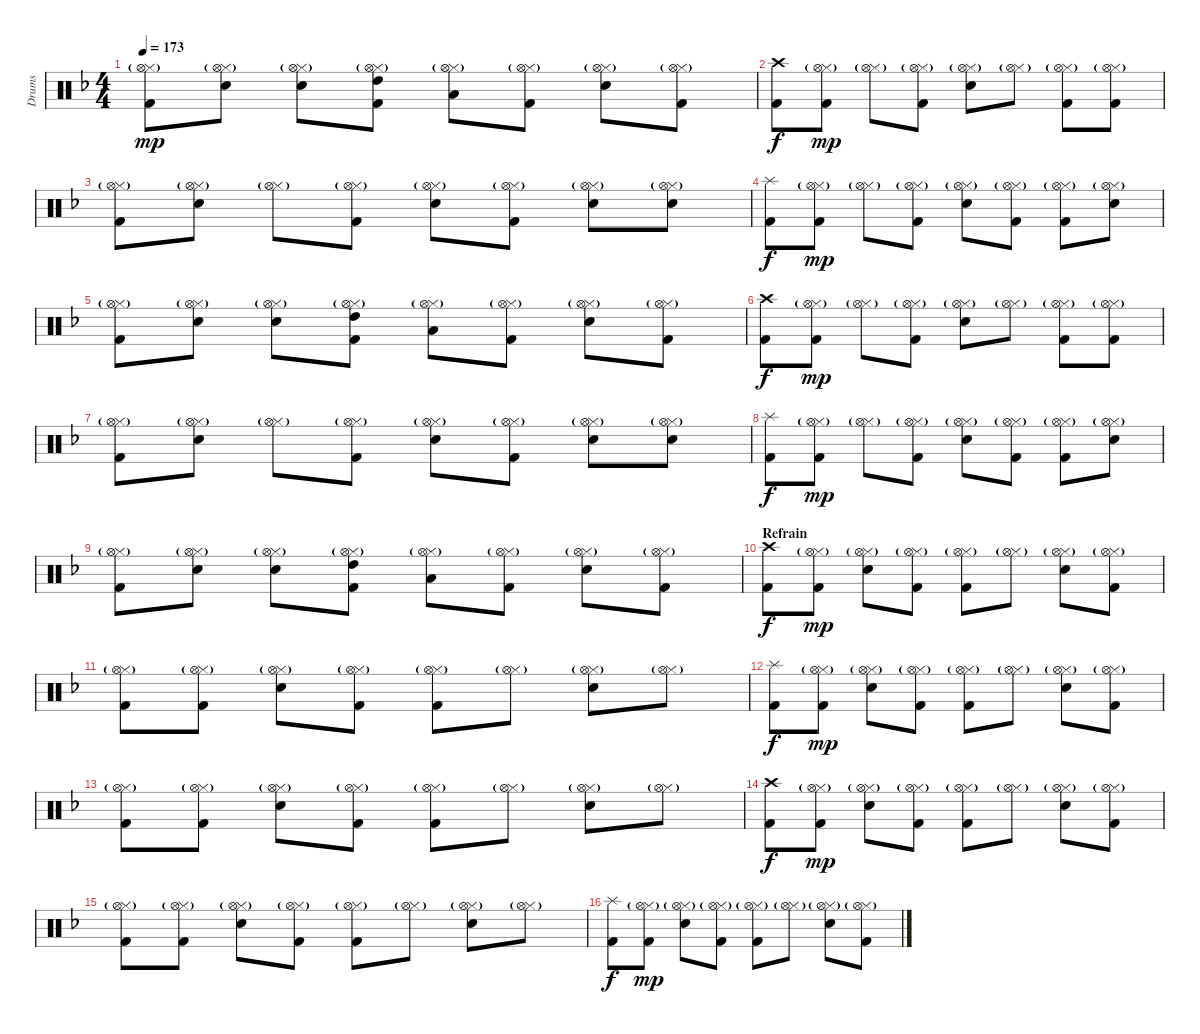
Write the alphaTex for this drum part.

\track ("Drums" "Drums") {instrument percussion}
\staff {score}
\articulation defaults
\ts (4 4)
\tempo 173
\clef neutral
\ks dminor
("Hi-Hat (closed)"{g} "Hi-Hat (open)"{g} "Kick (hit) 2").8{dy mp} ("Hi-Hat (closed)"{g} "Hi-Hat (open)"{g} "Snare (hit) 2").8 ("Hi-Hat (closed)"{g} "Hi-Hat (open)"{g} "Snare (hit) 2").8 ("Hi-Hat (closed)"{g} "Hi-Hat (open)"{g} "High Tom (hit)" "Kick (hit) 2").8 ("Hi-Hat (closed)"{g} "Hi-Hat (open)"{g} "Low Tom (hit)").8 ("Hi-Hat (closed)"{g} "Hi-Hat (open)"{g} "Kick (hit) 2").8 ("Hi-Hat (closed)"{g} "Hi-Hat (open)"{g} "Snare (hit) 2").8 ("Hi-Hat (closed)"{g} "Hi-Hat (open)"{g} "Kick (hit) 2").8 |
("Crash high (hit)" "Kick (hit) 2").8{dy f} ("Hi-Hat (closed)"{g} "Hi-Hat (open)"{g} "Kick (hit) 2").8{dy mp} ("Hi-Hat (closed)"{g} "Hi-Hat (open)"{g}).8 ("Hi-Hat (closed)"{g} "Hi-Hat (open)"{g} "Kick (hit) 2").8 ("Hi-Hat (closed)"{g} "Hi-Hat (open)"{g} "Snare (hit) 2").8 ("Hi-Hat (closed)"{g} "Hi-Hat (open)"{g}).8 ("Hi-Hat (closed)"{g} "Hi-Hat (open)"{g} "Kick (hit) 2").8 ("Hi-Hat (closed)"{g} "Hi-Hat (open)"{g} "Kick (hit) 2").8 |
("Hi-Hat (closed)"{g} "Hi-Hat (open)"{g} "Kick (hit) 2").8 ("Hi-Hat (closed)"{g} "Hi-Hat (open)"{g} "Snare (hit) 2").8 ("Hi-Hat (closed)"{g} "Hi-Hat (open)"{g}).8 ("Hi-Hat (closed)"{g} "Hi-Hat (open)"{g} "Kick (hit) 2").8 ("Hi-Hat (closed)"{g} "Hi-Hat (open)"{g} "Snare (hit) 2").8 ("Hi-Hat (closed)"{g} "Hi-Hat (open)"{g} "Kick (hit) 2").8 ("Hi-Hat (closed)"{g} "Hi-Hat (open)"{g} "Snare (hit) 2").8 ("Hi-Hat (closed)"{g} "Hi-Hat (open)"{g} "Snare (hit) 2").8 |
("Splash (hit)" "Kick (hit) 2").8{dy f} ("Hi-Hat (closed)"{g} "Hi-Hat (open)"{g} "Kick (hit) 2").8{dy mp} ("Hi-Hat (closed)"{g} "Hi-Hat (open)"{g}).8 ("Hi-Hat (closed)"{g} "Hi-Hat (open)"{g} "Kick (hit) 2").8 ("Hi-Hat (closed)"{g} "Hi-Hat (open)"{g} "Snare (hit) 2").8 ("Hi-Hat (closed)"{g} "Hi-Hat (open)"{g} "Kick (hit) 2").8 ("Hi-Hat (closed)"{g} "Hi-Hat (open)"{g} "Kick (hit) 2").8 ("Hi-Hat (closed)"{g} "Hi-Hat (open)"{g} "Snare (hit) 2").8 |
("Hi-Hat (closed)"{g} "Hi-Hat (open)"{g} "Kick (hit) 2").8 ("Hi-Hat (closed)"{g} "Hi-Hat (open)"{g} "Snare (hit) 2").8 ("Hi-Hat (closed)"{g} "Hi-Hat (open)"{g} "Snare (hit) 2").8 ("Hi-Hat (closed)"{g} "Hi-Hat (open)"{g} "High Tom (hit)" "Kick (hit) 2").8 ("Hi-Hat (closed)"{g} "Hi-Hat (open)"{g} "Low Tom (hit)").8 ("Hi-Hat (closed)"{g} "Hi-Hat (open)"{g} "Kick (hit) 2").8 ("Hi-Hat (closed)"{g} "Hi-Hat (open)"{g} "Snare (hit) 2").8 ("Hi-Hat (closed)"{g} "Hi-Hat (open)"{g} "Kick (hit) 2").8 |
("Crash high (hit)" "Kick (hit) 2").8{dy f} ("Hi-Hat (closed)"{g} "Hi-Hat (open)"{g} "Kick (hit) 2").8{dy mp} ("Hi-Hat (closed)"{g} "Hi-Hat (open)"{g}).8 ("Hi-Hat (closed)"{g} "Hi-Hat (open)"{g} "Kick (hit) 2").8 ("Hi-Hat (closed)"{g} "Hi-Hat (open)"{g} "Snare (hit) 2").8 ("Hi-Hat (closed)"{g} "Hi-Hat (open)"{g}).8 ("Hi-Hat (closed)"{g} "Hi-Hat (open)"{g} "Kick (hit) 2").8 ("Hi-Hat (closed)"{g} "Hi-Hat (open)"{g} "Kick (hit) 2").8 |
("Hi-Hat (closed)"{g} "Hi-Hat (open)"{g} "Kick (hit) 2").8 ("Hi-Hat (closed)"{g} "Hi-Hat (open)"{g} "Snare (hit) 2").8 ("Hi-Hat (closed)"{g} "Hi-Hat (open)"{g}).8 ("Hi-Hat (closed)"{g} "Hi-Hat (open)"{g} "Kick (hit) 2").8 ("Hi-Hat (closed)"{g} "Hi-Hat (open)"{g} "Snare (hit) 2").8 ("Hi-Hat (closed)"{g} "Hi-Hat (open)"{g} "Kick (hit) 2").8 ("Hi-Hat (closed)"{g} "Hi-Hat (open)"{g} "Snare (hit) 2").8 ("Hi-Hat (closed)"{g} "Hi-Hat (open)"{g} "Snare (hit) 2").8 |
("Splash (hit)" "Kick (hit) 2").8{dy f} ("Hi-Hat (closed)"{g} "Hi-Hat (open)"{g} "Kick (hit) 2").8{dy mp} ("Hi-Hat (closed)"{g} "Hi-Hat (open)"{g}).8 ("Hi-Hat (closed)"{g} "Hi-Hat (open)"{g} "Kick (hit) 2").8 ("Hi-Hat (closed)"{g} "Hi-Hat (open)"{g} "Snare (hit) 2").8 ("Hi-Hat (closed)"{g} "Hi-Hat (open)"{g} "Kick (hit) 2").8 ("Hi-Hat (closed)"{g} "Hi-Hat (open)"{g} "Kick (hit) 2").8 ("Hi-Hat (closed)"{g} "Hi-Hat (open)"{g} "Snare (hit) 2").8 |
("Hi-Hat (closed)"{g} "Hi-Hat (open)"{g} "Kick (hit) 2").8 ("Hi-Hat (closed)"{g} "Hi-Hat (open)"{g} "Snare (hit) 2").8 ("Hi-Hat (closed)"{g} "Hi-Hat (open)"{g} "Snare (hit) 2").8 ("Hi-Hat (closed)"{g} "Hi-Hat (open)"{g} "High Tom (hit)" "Kick (hit) 2").8 ("Hi-Hat (closed)"{g} "Hi-Hat (open)"{g} "Low Tom (hit)").8 ("Hi-Hat (closed)"{g} "Hi-Hat (open)"{g} "Kick (hit) 2").8 ("Hi-Hat (closed)"{g} "Hi-Hat (open)"{g} "Snare (hit) 2").8 ("Hi-Hat (closed)"{g} "Hi-Hat (open)"{g} "Kick (hit) 2").8 |
\section ("" "Refrain")
("Crash high (hit)" "Kick (hit) 2").8{dy f} ("Hi-Hat (closed)"{g} "Hi-Hat (open)"{g} "Kick (hit) 2").8{dy mp} ("Hi-Hat (closed)"{g} "Hi-Hat (open)"{g} "Snare (hit) 2").8 ("Hi-Hat (closed)"{g} "Hi-Hat (open)"{g} "Kick (hit) 2").8 ("Hi-Hat (closed)"{g} "Hi-Hat (open)"{g} "Kick (hit) 2").8 ("Hi-Hat (closed)"{g} "Hi-Hat (open)"{g}).8 ("Hi-Hat (closed)"{g} "Hi-Hat (open)"{g} "Snare (hit) 2").8 ("Hi-Hat (closed)"{g} "Hi-Hat (open)"{g} "Kick (hit) 2").8 |
("Hi-Hat (closed)"{g} "Hi-Hat (open)"{g} "Kick (hit) 2").8 ("Hi-Hat (closed)"{g} "Hi-Hat (open)"{g} "Kick (hit) 2").8 ("Hi-Hat (closed)"{g} "Hi-Hat (open)"{g} "Snare (hit) 2").8 ("Hi-Hat (closed)"{g} "Hi-Hat (open)"{g} "Kick (hit) 2").8 ("Hi-Hat (closed)"{g} "Hi-Hat (open)"{g} "Kick (hit) 2").8 ("Hi-Hat (closed)"{g} "Hi-Hat (open)"{g}).8 ("Hi-Hat (closed)"{g} "Hi-Hat (open)"{g} "Snare (hit) 2").8 ("Hi-Hat (closed)"{g} "Hi-Hat (open)"{g}).8 |
("Splash (hit)" "Kick (hit) 2").8{dy f} ("Hi-Hat (closed)"{g} "Hi-Hat (open)"{g} "Kick (hit) 2").8{dy mp} ("Hi-Hat (closed)"{g} "Hi-Hat (open)"{g} "Snare (hit) 2").8 ("Hi-Hat (closed)"{g} "Hi-Hat (open)"{g} "Kick (hit) 2").8 ("Hi-Hat (closed)"{g} "Hi-Hat (open)"{g} "Kick (hit) 2").8 ("Hi-Hat (closed)"{g} "Hi-Hat (open)"{g}).8 ("Hi-Hat (closed)"{g} "Hi-Hat (open)"{g} "Snare (hit) 2").8 ("Hi-Hat (closed)"{g} "Hi-Hat (open)"{g} "Kick (hit) 2").8 |
("Hi-Hat (closed)"{g} "Hi-Hat (open)"{g} "Kick (hit) 2").8 ("Hi-Hat (closed)"{g} "Hi-Hat (open)"{g} "Kick (hit) 2").8 ("Hi-Hat (closed)"{g} "Hi-Hat (open)"{g} "Snare (hit) 2").8 ("Hi-Hat (closed)"{g} "Hi-Hat (open)"{g} "Kick (hit) 2").8 ("Hi-Hat (closed)"{g} "Hi-Hat (open)"{g} "Kick (hit) 2").8 ("Hi-Hat (closed)"{g} "Hi-Hat (open)"{g}).8 ("Hi-Hat (closed)"{g} "Hi-Hat (open)"{g} "Snare (hit) 2").8 ("Hi-Hat (closed)"{g} "Hi-Hat (open)"{g}).8 |
("Crash high (hit)" "Kick (hit) 2").8{dy f} ("Hi-Hat (closed)"{g} "Hi-Hat (open)"{g} "Kick (hit) 2").8{dy mp} ("Hi-Hat (closed)"{g} "Hi-Hat (open)"{g} "Snare (hit) 2").8 ("Hi-Hat (closed)"{g} "Hi-Hat (open)"{g} "Kick (hit) 2").8 ("Hi-Hat (closed)"{g} "Hi-Hat (open)"{g} "Kick (hit) 2").8 ("Hi-Hat (closed)"{g} "Hi-Hat (open)"{g}).8 ("Hi-Hat (closed)"{g} "Hi-Hat (open)"{g} "Snare (hit) 2").8 ("Hi-Hat (closed)"{g} "Hi-Hat (open)"{g} "Kick (hit) 2").8 |
("Hi-Hat (closed)"{g} "Hi-Hat (open)"{g} "Kick (hit) 2").8 ("Hi-Hat (closed)"{g} "Hi-Hat (open)"{g} "Kick (hit) 2").8 ("Hi-Hat (closed)"{g} "Hi-Hat (open)"{g} "Snare (hit) 2").8 ("Hi-Hat (closed)"{g} "Hi-Hat (open)"{g} "Kick (hit) 2").8 ("Hi-Hat (closed)"{g} "Hi-Hat (open)"{g} "Kick (hit) 2").8 ("Hi-Hat (closed)"{g} "Hi-Hat (open)"{g}).8 ("Hi-Hat (closed)"{g} "Hi-Hat (open)"{g} "Snare (hit) 2").8 ("Hi-Hat (closed)"{g} "Hi-Hat (open)"{g}).8 |
("Splash (hit)" "Kick (hit) 2").8{dy f} ("Hi-Hat (closed)"{g} "Hi-Hat (open)"{g} "Kick (hit) 2").8{dy mp} ("Hi-Hat (closed)"{g} "Hi-Hat (open)"{g} "Snare (hit) 2").8 ("Hi-Hat (closed)"{g} "Hi-Hat (open)"{g} "Kick (hit) 2").8 ("Hi-Hat (closed)"{g} "Hi-Hat (open)"{g} "Kick (hit) 2").8 ("Hi-Hat (closed)"{g} "Hi-Hat (open)"{g}).8 ("Hi-Hat (closed)"{g} "Hi-Hat (open)"{g} "Snare (hit) 2").8 ("Hi-Hat (closed)"{g} "Hi-Hat (open)"{g} "Kick (hit) 2").8
